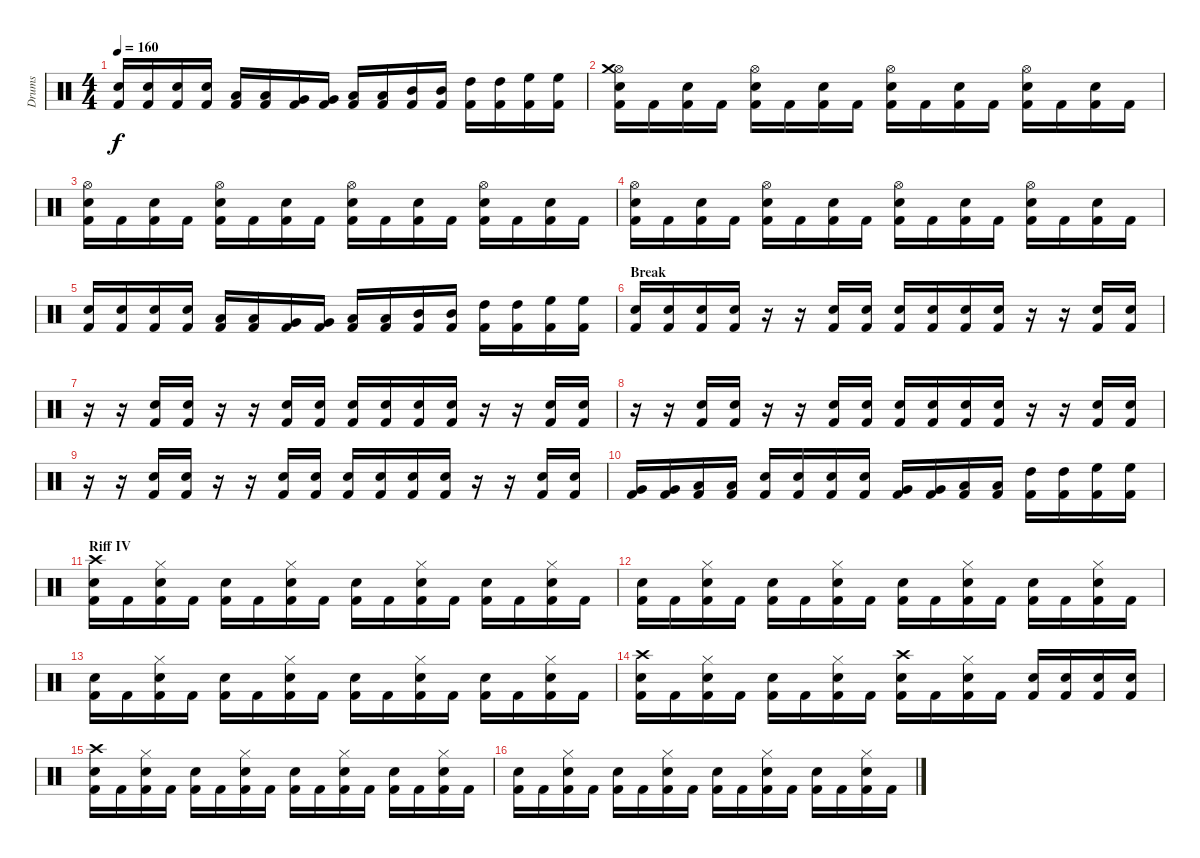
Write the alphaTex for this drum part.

\track ("Drums" "Drums") {instrument percussion}
\staff {score}
\articulation defaults
\ts (4 4)
\tempo 160
\clef neutral
\ks c
("Kick (hit) 2" "Snare (hit) 2").16{dy f} ("Kick (hit) 2" "Snare (hit) 2").16 ("Kick (hit) 2" "Snare (hit) 2").16 ("Kick (hit) 2" "Snare (hit) 2").16 ("Kick (hit) 2" "Low Floor Tom (hit)").16 ("Kick (hit) 2" "Low Floor Tom (hit)").16 ("Kick (hit) 2" "Very Low Tom (hit)").16 ("Kick (hit) 2" "Very Low Tom (hit)").16 ("Kick (hit) 2" "Low Tom (hit)").16 ("Kick (hit) 2" "Low Tom (hit)").16 ("Kick (hit) 2" "Mid Tom (hit)").16 ("Kick (hit) 2" "Mid Tom (hit)").16 ("Kick (hit) 2" "High Tom (hit)").16 ("Kick (hit) 2" "High Tom (hit)").16 ("Kick (hit) 2" "High Floor Tom (hit)").16 ("Kick (hit) 2" "High Floor Tom (hit)").16 |
("Kick (hit) 2" "Snare (hit) 2" "Hi-Hat (open)" "Crash medium (hit)").16 "Kick (hit) 2".16 ("Kick (hit) 2" "Snare (hit) 2").16 "Kick (hit) 2".16 ("Kick (hit) 2" "Snare (hit) 2" "Hi-Hat (open)").16 "Kick (hit) 2".16 ("Kick (hit) 2" "Snare (hit) 2").16 "Kick (hit) 2".16 ("Kick (hit) 2" "Snare (hit) 2" "Hi-Hat (open)").16 "Kick (hit) 2".16 ("Kick (hit) 2" "Snare (hit) 2").16 "Kick (hit) 2".16 ("Kick (hit) 2" "Snare (hit) 2" "Hi-Hat (open)").16 "Kick (hit) 2".16 ("Kick (hit) 2" "Snare (hit) 2").16 "Kick (hit) 2".16 |
("Kick (hit) 2" "Snare (hit) 2" "Hi-Hat (open)").16 "Kick (hit) 2".16 ("Kick (hit) 2" "Snare (hit) 2").16 "Kick (hit) 2".16 ("Kick (hit) 2" "Snare (hit) 2" "Hi-Hat (open)").16 "Kick (hit) 2".16 ("Kick (hit) 2" "Snare (hit) 2").16 "Kick (hit) 2".16 ("Kick (hit) 2" "Snare (hit) 2" "Hi-Hat (open)").16 "Kick (hit) 2".16 ("Kick (hit) 2" "Snare (hit) 2").16 "Kick (hit) 2".16 ("Kick (hit) 2" "Snare (hit) 2" "Hi-Hat (open)").16 "Kick (hit) 2".16 ("Kick (hit) 2" "Snare (hit) 2").16 "Kick (hit) 2".16 |
("Kick (hit) 2" "Snare (hit) 2" "Hi-Hat (open)").16 "Kick (hit) 2".16 ("Kick (hit) 2" "Snare (hit) 2").16 "Kick (hit) 2".16 ("Kick (hit) 2" "Snare (hit) 2" "Hi-Hat (open)").16 "Kick (hit) 2".16 ("Kick (hit) 2" "Snare (hit) 2").16 "Kick (hit) 2".16 ("Kick (hit) 2" "Snare (hit) 2" "Hi-Hat (open)").16 "Kick (hit) 2".16 ("Kick (hit) 2" "Snare (hit) 2").16 "Kick (hit) 2".16 ("Kick (hit) 2" "Snare (hit) 2" "Hi-Hat (open)").16 "Kick (hit) 2".16 ("Kick (hit) 2" "Snare (hit) 2").16 "Kick (hit) 2".16 |
("Kick (hit) 2" "Snare (hit) 2").16 ("Kick (hit) 2" "Snare (hit) 2").16 ("Kick (hit) 2" "Snare (hit) 2").16 ("Kick (hit) 2" "Snare (hit) 2").16 ("Kick (hit) 2" "Low Floor Tom (hit)").16 ("Kick (hit) 2" "Low Floor Tom (hit)").16 ("Kick (hit) 2" "Very Low Tom (hit)").16 ("Kick (hit) 2" "Very Low Tom (hit)").16 ("Kick (hit) 2" "Low Tom (hit)").16 ("Kick (hit) 2" "Low Tom (hit)").16 ("Kick (hit) 2" "Mid Tom (hit)").16 ("Kick (hit) 2" "Mid Tom (hit)").16 ("Kick (hit) 2" "High Tom (hit)").16 ("Kick (hit) 2" "High Tom (hit)").16 ("Kick (hit) 2" "High Floor Tom (hit)").16 ("Kick (hit) 2" "High Floor Tom (hit)").16 |
\section ("" "Break")
("Kick (hit) 2" "Snare (hit) 2").16 ("Kick (hit) 2" "Snare (hit) 2").16 ("Kick (hit) 2" "Snare (hit) 2").16 ("Kick (hit) 2" "Snare (hit) 2").16 r.16 r.16 ("Kick (hit) 2" "Snare (hit) 2").16 ("Kick (hit) 2" "Snare (hit) 2").16 ("Kick (hit) 2" "Snare (hit) 2").16 ("Kick (hit) 2" "Snare (hit) 2").16 ("Kick (hit) 2" "Snare (hit) 2").16 ("Kick (hit) 2" "Snare (hit) 2").16 r.16 r.16 ("Kick (hit) 2" "Snare (hit) 2").16 ("Kick (hit) 2" "Snare (hit) 2").16 |
r.16 r.16 ("Kick (hit) 2" "Snare (hit) 2").16 ("Kick (hit) 2" "Snare (hit) 2").16 r.16 r.16 ("Kick (hit) 2" "Snare (hit) 2").16 ("Kick (hit) 2" "Snare (hit) 2").16 ("Kick (hit) 2" "Snare (hit) 2").16 ("Kick (hit) 2" "Snare (hit) 2").16 ("Kick (hit) 2" "Snare (hit) 2").16 ("Kick (hit) 2" "Snare (hit) 2").16 r.16 r.16 ("Kick (hit) 2" "Snare (hit) 2").16 ("Kick (hit) 2" "Snare (hit) 2").16 |
r.16 r.16 ("Kick (hit) 2" "Snare (hit) 2").16 ("Kick (hit) 2" "Snare (hit) 2").16 r.16 r.16 ("Kick (hit) 2" "Snare (hit) 2").16 ("Kick (hit) 2" "Snare (hit) 2").16 ("Kick (hit) 2" "Snare (hit) 2").16 ("Kick (hit) 2" "Snare (hit) 2").16 ("Kick (hit) 2" "Snare (hit) 2").16 ("Kick (hit) 2" "Snare (hit) 2").16 r.16 r.16 ("Kick (hit) 2" "Snare (hit) 2").16 ("Kick (hit) 2" "Snare (hit) 2").16 |
r.16 r.16 ("Kick (hit) 2" "Snare (hit) 2").16 ("Kick (hit) 2" "Snare (hit) 2").16 r.16 r.16 ("Kick (hit) 2" "Snare (hit) 2").16 ("Kick (hit) 2" "Snare (hit) 2").16 ("Kick (hit) 2" "Snare (hit) 2").16 ("Kick (hit) 2" "Snare (hit) 2").16 ("Kick (hit) 2" "Snare (hit) 2").16 ("Kick (hit) 2" "Snare (hit) 2").16 r.16 r.16 ("Kick (hit) 2" "Snare (hit) 2").16 ("Kick (hit) 2" "Snare (hit) 2").16 |
("Kick (hit) 2" "Very Low Tom (hit)").16 ("Kick (hit) 2" "Very Low Tom (hit)").16 ("Kick (hit) 2" "Low Tom (hit)").16 ("Kick (hit) 2" "Low Tom (hit)").16 ("Kick (hit) 2" "Snare (hit) 2").16 ("Kick (hit) 2" "Snare (hit) 2").16 ("Kick (hit) 2" "Snare (hit) 2").16 ("Kick (hit) 2" "Snare (hit) 2").16 ("Kick (hit) 2" "Very Low Tom (hit)").16 ("Kick (hit) 2" "Very Low Tom (hit)").16 ("Kick (hit) 2" "Low Tom (hit)").16 ("Kick (hit) 2" "Low Tom (hit)").16 ("Kick (hit) 2" "High Tom (hit)").16 ("Kick (hit) 2" "High Tom (hit)").16 ("Kick (hit) 2" "High Floor Tom (hit)").16 ("Kick (hit) 2" "High Floor Tom (hit)").16 |
\section ("" "Riff IV")
("Kick (hit) 2" "Snare (hit) 2" "Crash high (hit)").16 "Kick (hit) 2".16 ("Kick (hit) 2" "Snare (hit) 2" "Hi-Hat (closed)").16 "Kick (hit) 2".16 ("Kick (hit) 2" "Snare (hit) 2").16 "Kick (hit) 2".16 ("Kick (hit) 2" "Snare (hit) 2" "Hi-Hat (closed)").16 "Kick (hit) 2".16 ("Kick (hit) 2" "Snare (hit) 2").16 "Kick (hit) 2".16 ("Kick (hit) 2" "Snare (hit) 2" "Hi-Hat (closed)").16 "Kick (hit) 2".16 ("Kick (hit) 2" "Snare (hit) 2").16 "Kick (hit) 2".16 ("Kick (hit) 2" "Snare (hit) 2" "Hi-Hat (closed)").16 "Kick (hit) 2".16 |
("Kick (hit) 2" "Snare (hit) 2").16 "Kick (hit) 2".16 ("Kick (hit) 2" "Snare (hit) 2" "Hi-Hat (closed)").16 "Kick (hit) 2".16 ("Kick (hit) 2" "Snare (hit) 2").16 "Kick (hit) 2".16 ("Kick (hit) 2" "Snare (hit) 2" "Hi-Hat (closed)").16 "Kick (hit) 2".16 ("Kick (hit) 2" "Snare (hit) 2").16 "Kick (hit) 2".16 ("Kick (hit) 2" "Snare (hit) 2" "Hi-Hat (closed)").16 "Kick (hit) 2".16 ("Kick (hit) 2" "Snare (hit) 2").16 "Kick (hit) 2".16 ("Kick (hit) 2" "Snare (hit) 2" "Hi-Hat (closed)").16 "Kick (hit) 2".16 |
("Kick (hit) 2" "Snare (hit) 2").16 "Kick (hit) 2".16 ("Kick (hit) 2" "Snare (hit) 2" "Hi-Hat (closed)").16 "Kick (hit) 2".16 ("Kick (hit) 2" "Snare (hit) 2").16 "Kick (hit) 2".16 ("Kick (hit) 2" "Snare (hit) 2" "Hi-Hat (closed)").16 "Kick (hit) 2".16 ("Kick (hit) 2" "Snare (hit) 2").16 "Kick (hit) 2".16 ("Kick (hit) 2" "Snare (hit) 2" "Hi-Hat (closed)").16 "Kick (hit) 2".16 ("Kick (hit) 2" "Snare (hit) 2").16 "Kick (hit) 2".16 ("Kick (hit) 2" "Snare (hit) 2" "Hi-Hat (closed)").16 "Kick (hit) 2".16 |
("Kick (hit) 2" "Snare (hit) 2" "Crash high (hit)").16 "Kick (hit) 2".16 ("Kick (hit) 2" "Snare (hit) 2" "Hi-Hat (closed)").16 "Kick (hit) 2".16 ("Kick (hit) 2" "Snare (hit) 2").16 "Kick (hit) 2".16 ("Kick (hit) 2" "Snare (hit) 2" "Hi-Hat (closed)").16 "Kick (hit) 2".16 ("Kick (hit) 2" "Snare (hit) 2" "Crash high (hit)").16 "Kick (hit) 2".16 ("Kick (hit) 2" "Snare (hit) 2" "Hi-Hat (closed)").16 "Kick (hit) 2".16 ("Kick (hit) 2" "Snare (hit) 2").16 ("Kick (hit) 2" "Snare (hit) 2").16 ("Kick (hit) 2" "Snare (hit) 2").16 ("Kick (hit) 2" "Snare (hit) 2").16 |
("Kick (hit) 2" "Snare (hit) 2" "Crash high (hit)").16 "Kick (hit) 2".16 ("Kick (hit) 2" "Snare (hit) 2" "Hi-Hat (closed)").16 "Kick (hit) 2".16 ("Kick (hit) 2" "Snare (hit) 2").16 "Kick (hit) 2".16 ("Kick (hit) 2" "Snare (hit) 2" "Hi-Hat (closed)").16 "Kick (hit) 2".16 ("Kick (hit) 2" "Snare (hit) 2").16 "Kick (hit) 2".16 ("Kick (hit) 2" "Snare (hit) 2" "Hi-Hat (closed)").16 "Kick (hit) 2".16 ("Kick (hit) 2" "Snare (hit) 2").16 "Kick (hit) 2".16 ("Kick (hit) 2" "Snare (hit) 2" "Hi-Hat (closed)").16 "Kick (hit) 2".16 |
("Kick (hit) 2" "Snare (hit) 2").16 "Kick (hit) 2".16 ("Kick (hit) 2" "Snare (hit) 2" "Hi-Hat (closed)").16 "Kick (hit) 2".16 ("Kick (hit) 2" "Snare (hit) 2").16 "Kick (hit) 2".16 ("Kick (hit) 2" "Snare (hit) 2" "Hi-Hat (closed)").16 "Kick (hit) 2".16 ("Kick (hit) 2" "Snare (hit) 2").16 "Kick (hit) 2".16 ("Kick (hit) 2" "Snare (hit) 2" "Hi-Hat (closed)").16 "Kick (hit) 2".16 ("Kick (hit) 2" "Snare (hit) 2").16 "Kick (hit) 2".16 ("Kick (hit) 2" "Snare (hit) 2" "Hi-Hat (closed)").16 "Kick (hit) 2".16
